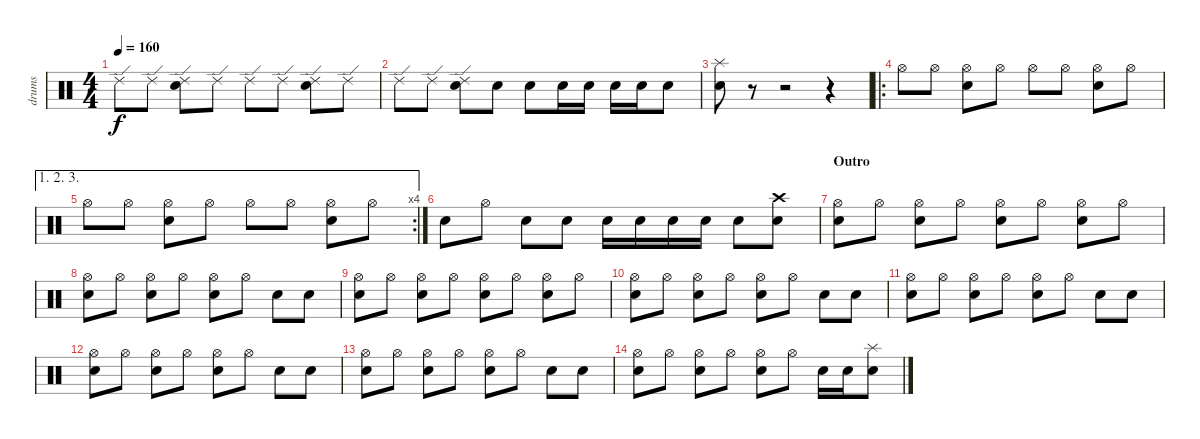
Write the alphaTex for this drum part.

\track ("drums" "drums") {instrument percussion}
\staff {score}
\articulation defaults
\ts (4 4)
\tempo 160
\clef neutral
\ks c "Ride (edge) 2".8{dy f} "Ride (edge) 2".8
("Electric Snare (hit)" "Ride (edge) 2").8 "Ride (edge) 2".8 "Ride (edge) 2".8 "Ride (edge) 2".8 ("Electric Snare (hit)" "Ride (edge) 2").8 "Ride (edge) 2".8 |
"Ride (edge) 2".8 "Ride (edge) 2".8 ("Electric Snare (hit)" "Ride (edge) 2").8 "Electric Snare (hit)".8 "Electric Snare (hit)".8 "Electric Snare (hit)".16 "Electric Snare (hit)".16 "Electric Snare (hit)".16 "Electric Snare (hit)".16 "Electric Snare (hit)".8 |
("Splash (hit)" "Snare (hit) 2").8 r.8 r.2 r.4 |
\ro "Hi-Hat (open)".8 "Hi-Hat (open)".8
("Electric Snare (hit)" "Hi-Hat (open)").8 "Hi-Hat (open)".8 "Hi-Hat (open)".8 "Hi-Hat (open)".8 ("Electric Snare (hit)" "Hi-Hat (open)").8 "Hi-Hat (open)".8 |
\ae (1 2 3)
\rc 4 "Hi-Hat (open)".8 "Hi-Hat (open)".8
("Electric Snare (hit)" "Hi-Hat (open)").8 "Hi-Hat (open)".8 "Hi-Hat (open)".8 "Hi-Hat (open)".8 ("Electric Snare (hit)" "Hi-Hat (open)").8 "Hi-Hat (open)".8 |
"Electric Snare (hit)".8 "Hi-Hat (open)".8 "Electric Snare (hit)".8 "Electric Snare (hit)".8 "Electric Snare (hit)".16 "Electric Snare (hit)".16 "Electric Snare (hit)".16 "Electric Snare (hit)".16 "Electric Snare (hit)".8 ("Crash high (hit)" "Electric Snare (hit)").8 |
\section ("" "Outro")
("Electric Snare (hit)" "Hi-Hat (open)").8 "Hi-Hat (open)".8 ("Electric Snare (hit)" "Hi-Hat (open)").8 "Hi-Hat (open)".8 ("Electric Snare (hit)" "Hi-Hat (open)").8 "Hi-Hat (open)".8 ("Electric Snare (hit)" "Hi-Hat (open)").8 "Hi-Hat (open)".8 |
("Electric Snare (hit)" "Hi-Hat (open)").8 "Hi-Hat (open)".8 ("Electric Snare (hit)" "Hi-Hat (open)").8 "Hi-Hat (open)".8 ("Electric Snare (hit)" "Hi-Hat (open)").8 "Hi-Hat (open)".8 "Electric Snare (hit)".8 "Electric Snare (hit)".8 |
("Electric Snare (hit)" "Hi-Hat (open)").8 "Hi-Hat (open)".8 ("Electric Snare (hit)" "Hi-Hat (open)").8 "Hi-Hat (open)".8 ("Electric Snare (hit)" "Hi-Hat (open)").8 "Hi-Hat (open)".8 ("Electric Snare (hit)" "Hi-Hat (open)").8 "Hi-Hat (open)".8 |
("Electric Snare (hit)" "Hi-Hat (open)").8 "Hi-Hat (open)".8 ("Electric Snare (hit)" "Hi-Hat (open)").8 "Hi-Hat (open)".8 ("Electric Snare (hit)" "Hi-Hat (open)").8 "Hi-Hat (open)".8 "Electric Snare (hit)".8 "Electric Snare (hit)".8 |
("Electric Snare (hit)" "Hi-Hat (open)").8 "Hi-Hat (open)".8 ("Electric Snare (hit)" "Hi-Hat (open)").8 "Hi-Hat (open)".8 ("Electric Snare (hit)" "Hi-Hat (open)").8 "Hi-Hat (open)".8 "Electric Snare (hit)".8 "Electric Snare (hit)".8 |
("Electric Snare (hit)" "Hi-Hat (open)").8 "Hi-Hat (open)".8 ("Electric Snare (hit)" "Hi-Hat (open)").8 "Hi-Hat (open)".8 ("Electric Snare (hit)" "Hi-Hat (open)").8 "Hi-Hat (open)".8 "Electric Snare (hit)".8 "Electric Snare (hit)".8 |
("Electric Snare (hit)" "Hi-Hat (open)").8 "Hi-Hat (open)".8 ("Electric Snare (hit)" "Hi-Hat (open)").8 "Hi-Hat (open)".8 ("Electric Snare (hit)" "Hi-Hat (open)").8 "Hi-Hat (open)".8 "Electric Snare (hit)".8 "Electric Snare (hit)".8 |
("Electric Snare (hit)" "Hi-Hat (open)").8 "Hi-Hat (open)".8 ("Electric Snare (hit)" "Hi-Hat (open)").8 "Hi-Hat (open)".8 ("Electric Snare (hit)" "Hi-Hat (open)").8 "Hi-Hat (open)".8 "Electric Snare (hit)".16 "Electric Snare (hit)".16 ("Splash (hit)" "Electric Snare (hit)").8
